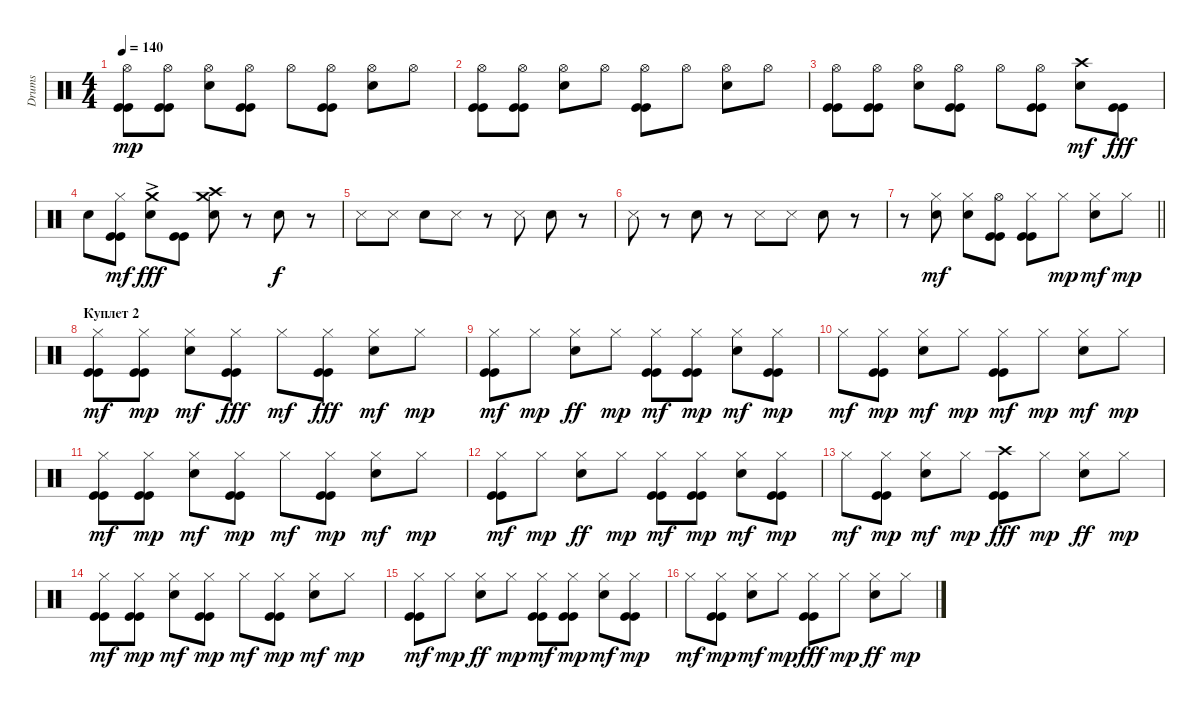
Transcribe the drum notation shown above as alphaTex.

\track ("Drums" "Drums") {instrument percussion}
\staff {score}
\articulation defaults
\ts (4 4)
\tempo 140
\clef neutral
\ks c
("Kick (hit)" "Kick (hit)" "Hi-Hat (open)").8{dy mp} ("Kick (hit)" "Kick (hit)" "Hi-Hat (open)").8 ("Electric Snare (hit)" "Hi-Hat (open)").8 ("Kick (hit)" "Kick (hit)" "Hi-Hat (open)").8 "Hi-Hat (open)".8 ("Kick (hit)" "Kick (hit)" "Hi-Hat (open)").8 ("Electric Snare (hit)" "Hi-Hat (open)").8 "Hi-Hat (open)".8 |
("Kick (hit)" "Kick (hit)" "Hi-Hat (open)").8 ("Kick (hit)" "Kick (hit)" "Hi-Hat (open)").8 ("Electric Snare (hit)" "Hi-Hat (open)").8 "Hi-Hat (open)".8 ("Kick (hit)" "Kick (hit)" "Hi-Hat (open)").8 "Hi-Hat (open)".8 ("Electric Snare (hit)" "Hi-Hat (open)").8 "Hi-Hat (open)".8 |
("Kick (hit)" "Kick (hit)" "Hi-Hat (open)").8 ("Kick (hit)" "Kick (hit)" "Hi-Hat (open)").8 ("Electric Snare (hit)" "Hi-Hat (open)").8 ("Kick (hit)" "Kick (hit)" "Hi-Hat (open)").8 "Hi-Hat (open)".8 ("Kick (hit)" "Kick (hit)" "Hi-Hat (open)").8 ("Electric Snare (hit)" "Crash high (hit)").8{dy mf} ("Kick (hit)" "Kick (hit)").8{dy fff} |
"Electric Snare (hit)".8 ("Kick (hit)" "Kick (hit)" "Hi-Hat (closed)").8{dy mf} ("Electric Snare (hit)" "Crash medium (hit)"{ac}).8{dy fff} ("Kick (hit)" "Kick (hit)").8 ("Electric Snare (hit)" "Crash medium (hit)" "Crash high (hit)").8 r.8 "Hand Clap (hit)".8{dy f} r.8 |
"Snare (side stick) 3".8 "Snare (side stick) 3".8 "Hand Clap (hit)".8 "Snare (side stick) 3".8 r.8 "Snare (side stick) 3".8 "Hand Clap (hit)".8 r.8 |
"Snare (side stick) 3".8 r.8 "Hand Clap (hit)".8 r.8 "Snare (side stick) 3".8 "Snare (side stick) 3".8 "Hand Clap (hit)".8 r.8 |
\barLineRight lightlight
r.8 ("Electric Snare (hit)" "Hi-Hat (closed)").8{dy mf} ("Electric Snare (hit)" "Hi-Hat (closed)").8 ("Kick (hit)" "Kick (hit)" "Hi-Hat (open)").8 ("Kick (hit)" "Kick (hit)" "Hi-Hat (closed)").8 "Hi-Hat (closed)".8{dy mp} ("Electric Snare (hit)" "Hi-Hat (closed)").8{dy mf} "Hi-Hat (closed)".8{dy mp} |
\section ("" "Куплет 2")
("Kick (hit)" "Kick (hit)" "Hi-Hat (closed)").8{dy mf} ("Kick (hit)" "Kick (hit)" "Hi-Hat (closed)").8{dy mp} ("Electric Snare (hit)" "Hi-Hat (closed)").8{dy mf} ("Kick (hit)" "Hi-Hat (closed)" "Kick (hit)").8{dy fff} "Hi-Hat (closed)".8{dy mf} ("Kick (hit)" "Hi-Hat (closed)" "Kick (hit)").8{dy fff} ("Electric Snare (hit)" "Hi-Hat (closed)").8{dy mf} "Hi-Hat (closed)".8{dy mp} |
("Kick (hit)" "Kick (hit)" "Hi-Hat (closed)").8{dy mf} "Hi-Hat (closed)".8{dy mp} ("Hi-Hat (closed)" "Electric Snare (hit)").8{dy ff} "Hi-Hat (closed)".8{dy mp} ("Kick (hit)" "Kick (hit)" "Hi-Hat (closed)").8{dy mf} ("Kick (hit)" "Kick (hit)" "Hi-Hat (closed)").8{dy mp} ("Electric Snare (hit)" "Hi-Hat (closed)").8{dy mf} ("Kick (hit)" "Kick (hit)" "Hi-Hat (closed)").8{dy mp} |
"Hi-Hat (closed)".8{dy mf} ("Kick (hit)" "Kick (hit)" "Hi-Hat (closed)").8{dy mp} ("Electric Snare (hit)" "Hi-Hat (closed)").8{dy mf} "Hi-Hat (closed)".8{dy mp} ("Kick (hit)" "Kick (hit)" "Hi-Hat (closed)").8{dy mf} "Hi-Hat (closed)".8{dy mp} ("Electric Snare (hit)" "Hi-Hat (closed)").8{dy mf} "Hi-Hat (closed)".8{dy mp} |
("Kick (hit)" "Kick (hit)" "Hi-Hat (closed)").8{dy mf} ("Kick (hit)" "Kick (hit)" "Hi-Hat (closed)").8{dy mp} ("Electric Snare (hit)" "Hi-Hat (closed)").8{dy mf} ("Kick (hit)" "Kick (hit)" "Hi-Hat (closed)").8{dy mp} "Hi-Hat (closed)".8{dy mf} ("Kick (hit)" "Kick (hit)" "Hi-Hat (closed)").8{dy mp} ("Electric Snare (hit)" "Hi-Hat (closed)").8{dy mf} "Hi-Hat (closed)".8{dy mp} |
("Kick (hit)" "Kick (hit)" "Hi-Hat (closed)").8{dy mf} "Hi-Hat (closed)".8{dy mp} ("Hi-Hat (closed)" "Electric Snare (hit)").8{dy ff} "Hi-Hat (closed)".8{dy mp} ("Kick (hit)" "Kick (hit)" "Hi-Hat (closed)").8{dy mf} ("Kick (hit)" "Kick (hit)" "Hi-Hat (closed)").8{dy mp} ("Electric Snare (hit)" "Hi-Hat (closed)").8{dy mf} ("Kick (hit)" "Kick (hit)" "Hi-Hat (closed)").8{dy mp} |
"Hi-Hat (closed)".8{dy mf} ("Kick (hit)" "Kick (hit)" "Hi-Hat (closed)").8{dy mp} ("Electric Snare (hit)" "Hi-Hat (closed)").8{dy mf} "Hi-Hat (closed)".8{dy mp} ("Kick (hit)" "Kick (hit)" "Crash high (hit)").8{dy fff} "Hi-Hat (closed)".8{dy mp} ("Hi-Hat (closed)" "Electric Snare (hit)").8{dy ff} "Hi-Hat (closed)".8{dy mp} |
("Kick (hit)" "Kick (hit)" "Hi-Hat (closed)").8{dy mf} ("Kick (hit)" "Kick (hit)" "Hi-Hat (closed)").8{dy mp} ("Electric Snare (hit)" "Hi-Hat (closed)").8{dy mf} ("Kick (hit)" "Kick (hit)" "Hi-Hat (closed)").8{dy mp} "Hi-Hat (closed)".8{dy mf} ("Kick (hit)" "Kick (hit)" "Hi-Hat (closed)").8{dy mp} ("Electric Snare (hit)" "Hi-Hat (closed)").8{dy mf} "Hi-Hat (closed)".8{dy mp} |
("Kick (hit)" "Kick (hit)" "Hi-Hat (closed)").8{dy mf} "Hi-Hat (closed)".8{dy mp} ("Hi-Hat (closed)" "Electric Snare (hit)").8{dy ff} "Hi-Hat (closed)".8{dy mp} ("Kick (hit)" "Kick (hit)" "Hi-Hat (closed)").8{dy mf} ("Kick (hit)" "Kick (hit)" "Hi-Hat (closed)").8{dy mp} ("Electric Snare (hit)" "Hi-Hat (closed)").8{dy mf} ("Kick (hit)" "Kick (hit)" "Hi-Hat (closed)").8{dy mp} |
"Hi-Hat (closed)".8{dy mf} ("Kick (hit)" "Kick (hit)" "Hi-Hat (closed)").8{dy mp} ("Electric Snare (hit)" "Hi-Hat (closed)").8{dy mf} "Hi-Hat (closed)".8{dy mp} ("Kick (hit)" "Kick (hit)" "Hi-Hat (closed)").8{dy fff} "Hi-Hat (closed)".8{dy mp} ("Hi-Hat (closed)" "Electric Snare (hit)").8{dy ff} "Hi-Hat (closed)".8{dy mp}
